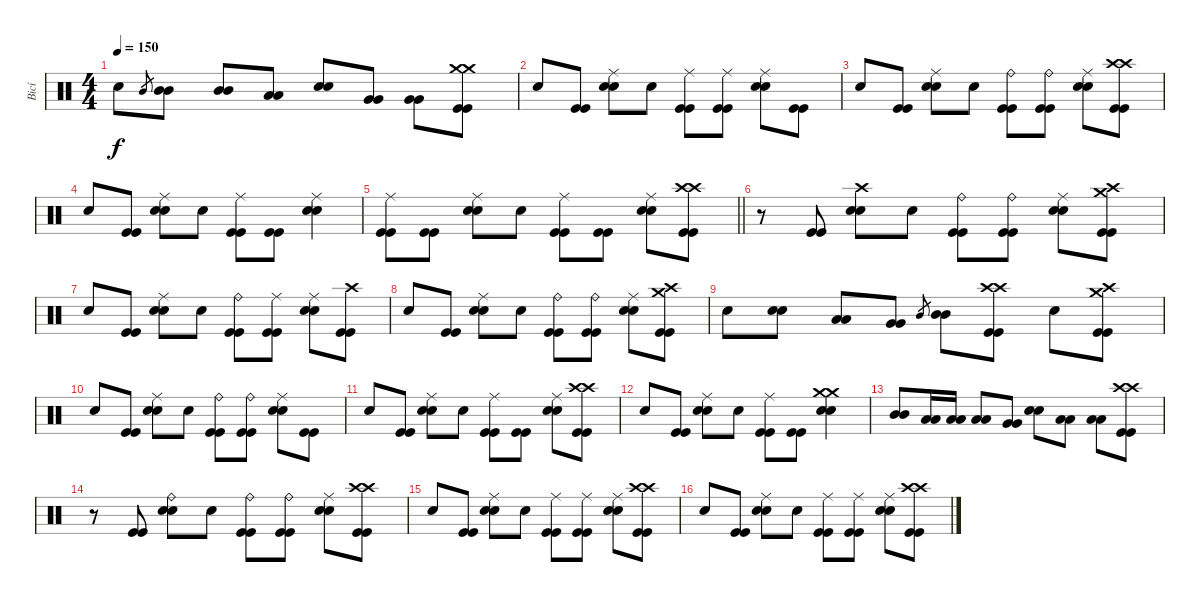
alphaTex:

\track ("Bicí" "Bicí") {instrument percussion}
\staff {score}
\articulation defaults
\ts (4 4)
\tempo 150
\clef neutral
\ks c "Snare (hit)".8{dy f} "Mid Tom (hit)".8{gr}
("Mid Tom (hit)" "Mid Tom (hit)").8 ("Mid Tom (hit)" "Mid Tom (hit)").8 ("Low Tom (hit)" "Low Tom (hit)").8 ("Electric Snare (hit)" "Electric Snare (hit)").8 ("Very Low Tom (hit)" "Very Low Tom (hit)").8 ("Very Low Tom (hit)" "Very Low Tom (hit)").8 ("Crash medium (hit)" "Crash medium (hit)" "Kick (hit)" "Kick (hit)").8 |
"Snare (hit)".8 ("Kick (hit)" "Kick (hit)").8 ("Ride (middle)" "Electric Snare (hit)" "Electric Snare (hit)").8 "Snare (hit)".8 ("Ride (middle)" "Kick (hit)" "Kick (hit)").8 ("Ride (middle)" "Kick (hit)" "Kick (hit)").8 ("Ride (middle)" "Electric Snare (hit)" "Electric Snare (hit)").8 ("Kick (hit)" "Kick (hit)").8 |
"Snare (hit)".8 ("Kick (hit)" "Kick (hit)").8 ("Ride (middle)" "Electric Snare (hit)" "Electric Snare (hit)").8 "Snare (hit)".8 ("Ride (bell)" "Kick (hit)" "Kick (hit)").8 ("Ride (bell)" "Kick (hit)" "Kick (hit)").8 ("Ride (middle)" "Electric Snare (hit)" "Electric Snare (hit)").8 ("Crash high (hit)" "Crash high (hit)" "Kick (hit)" "Kick (hit)").8 |
"Snare (hit)".8 ("Kick (hit)" "Kick (hit)").8 ("Ride (middle)" "Electric Snare (hit)" "Electric Snare (hit)").8 "Snare (hit)".8 ("Ride (middle)" "Kick (hit)" "Kick (hit)").8 ("Kick (hit)" "Kick (hit)").8 ("Ride (middle)" "Electric Snare (hit)" "Electric Snare (hit)").4 |
\barLineRight lightlight
("Ride (middle)" "Kick (hit)" "Kick (hit)").8 ("Kick (hit)" "Kick (hit)").8 ("Ride (middle)" "Electric Snare (hit)" "Electric Snare (hit)").8 "Snare (hit)".8 ("Ride (middle)" "Kick (hit)" "Kick (hit)").8 ("Kick (hit)" "Kick (hit)").8 ("Ride (middle)" "Electric Snare (hit)" "Electric Snare (hit)").8 ("Crash high (hit)" "Crash high (hit)" "Kick (hit)" "Kick (hit)").8 |
r.8 ("Kick (hit)" "Kick (hit)").8 ("Crash high (hit)" "Electric Snare (hit)" "Electric Snare (hit)").8 "Snare (hit)".8 ("Ride (bell)" "Kick (hit)" "Kick (hit)").8 ("Ride (bell)" "Kick (hit)" "Kick (hit)").8 ("Ride (middle)" "Electric Snare (hit)" "Electric Snare (hit)").8 ("Crash high (hit)" "Crash medium (hit)" "Kick (hit)" "Kick (hit)").8 |
"Snare (hit)".8 ("Kick (hit)" "Kick (hit)").8 ("Ride (middle)" "Electric Snare (hit)" "Electric Snare (hit)").8 "Snare (hit)".8 ("Ride (bell)" "Kick (hit)" "Kick (hit)").8 ("Ride (middle)" "Kick (hit)" "Kick (hit)").8 ("Ride (middle)" "Electric Snare (hit)" "Electric Snare (hit)").8 ("Crash high (hit)" "Kick (hit)" "Kick (hit)").8 |
"Snare (hit)".8 ("Kick (hit)" "Kick (hit)").8 ("Ride (middle)" "Electric Snare (hit)" "Electric Snare (hit)").8 "Snare (hit)".8 ("Ride (bell)" "Kick (hit)" "Kick (hit)").8 ("Ride (bell)" "Kick (hit)" "Kick (hit)").8 ("Ride (middle)" "Electric Snare (hit)" "Electric Snare (hit)").8 ("Crash high (hit)" "Crash medium (hit)" "Kick (hit)" "Kick (hit)").8 |
"Snare (hit)".8 ("Electric Snare (hit)" "Electric Snare (hit)").8 ("Low Tom (hit)" "Low Tom (hit)").8 ("Very Low Tom (hit)" "Very Low Tom (hit)").8 "Mid Tom (hit)".8{gr} ("Mid Tom (hit)" "Mid Tom (hit)").8 ("Crash high (hit)" "Crash high (hit)" "Kick (hit)" "Kick (hit)").8 "Snare (hit)".8 ("Crash high (hit)" "Crash medium (hit)" "Kick (hit)" "Kick (hit)").8 |
"Snare (hit)".8 ("Kick (hit)" "Kick (hit)").8 ("Ride (middle)" "Electric Snare (hit)" "Electric Snare (hit)").8 "Snare (hit)".8 ("Ride (bell)" "Kick (hit)" "Kick (hit)").8 ("Ride (bell)" "Kick (hit)" "Kick (hit)").8 ("Ride (middle)" "Electric Snare (hit)" "Electric Snare (hit)").8 ("Kick (hit)" "Kick (hit)").8 |
"Snare (hit)".8 ("Kick (hit)" "Kick (hit)").8 ("Ride (middle)" "Electric Snare (hit)" "Electric Snare (hit)").8 "Snare (hit)".8 ("Ride (middle)" "Kick (hit)" "Kick (hit)").8 ("Kick (hit)" "Kick (hit)").8 ("Ride (middle)" "Electric Snare (hit)" "Electric Snare (hit)").8 ("Crash high (hit)" "Crash high (hit)" "Kick (hit)" "Kick (hit)").8 |
"Snare (hit)".8 ("Kick (hit)" "Kick (hit)").8 ("Ride (middle)" "Electric Snare (hit)" "Electric Snare (hit)").8 "Snare (hit)".8 ("Ride (middle)" "Kick (hit)" "Kick (hit)").8 ("Kick (hit)" "Kick (hit)").8 ("Crash medium (hit)" "Crash medium (hit)" "Electric Snare (hit)" "Electric Snare (hit)").4 |
("Mid Tom (hit)" "Mid Tom (hit)").8 ("Low Tom (hit)" "Low Tom (hit)").16 ("Low Tom (hit)" "Low Tom (hit)").16 ("Low Tom (hit)" "Low Tom (hit)").8 ("Very Low Tom (hit)" "Very Low Tom (hit)").8 ("Electric Snare (hit)" "Electric Snare (hit)").8 ("Low Floor Tom (hit)" "Low Floor Tom (hit)").8 ("Low Floor Tom (hit)" "Low Floor Tom (hit)").8 ("Crash high (hit)" "Crash high (hit)" "Kick (hit)" "Kick (hit)").8 |
r.8 ("Kick (hit)" "Kick (hit)").8 ("Ride (bell)" "Electric Snare (hit)" "Electric Snare (hit)").8 "Snare (hit)".8 ("Ride (bell)" "Kick (hit)" "Kick (hit)").8 ("Ride (bell)" "Kick (hit)" "Kick (hit)").8 ("Ride (middle)" "Electric Snare (hit)" "Electric Snare (hit)").8 ("Crash high (hit)" "Crash high (hit)" "Kick (hit)" "Kick (hit)").8 |
"Snare (hit)".8 ("Kick (hit)" "Kick (hit)").8 ("Ride (middle)" "Electric Snare (hit)" "Electric Snare (hit)").8 "Snare (hit)".8 ("Ride (middle)" "Kick (hit)" "Kick (hit)").8 ("Ride (middle)" "Kick (hit)" "Kick (hit)").8 ("Ride (middle)" "Electric Snare (hit)" "Electric Snare (hit)").8 ("Crash high (hit)" "Crash high (hit)" "Kick (hit)" "Kick (hit)").8 |
"Snare (hit)".8 ("Kick (hit)" "Kick (hit)").8 ("Ride (middle)" "Electric Snare (hit)" "Electric Snare (hit)").8 "Snare (hit)".8 ("Ride (middle)" "Kick (hit)" "Kick (hit)").8 ("Ride (middle)" "Kick (hit)" "Kick (hit)").8 ("Ride (middle)" "Electric Snare (hit)" "Electric Snare (hit)").8 ("Crash high (hit)" "Crash high (hit)" "Kick (hit)" "Kick (hit)").8
